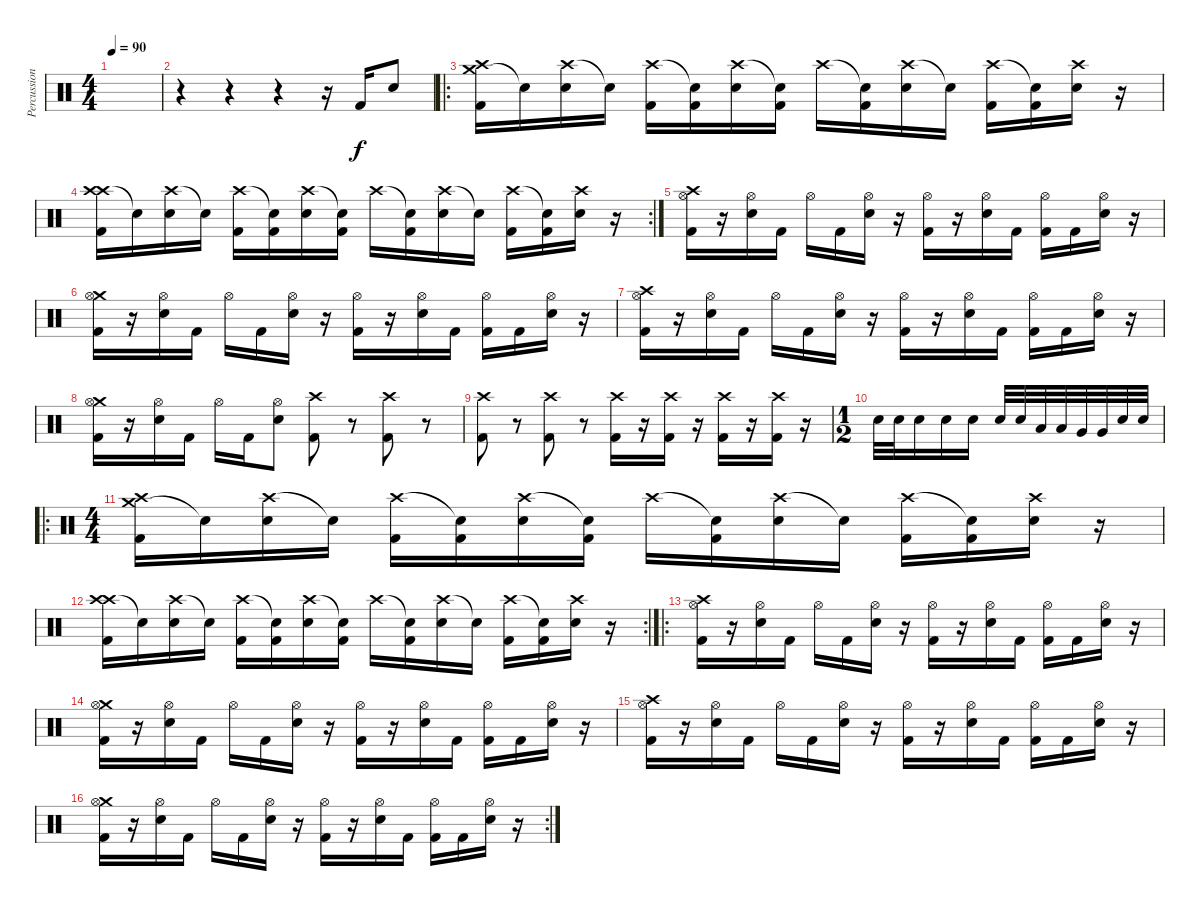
\track ("Percussion" "Percussion") {instrument percussion}
\staff {score}
\articulation defaults
\ts (4 4)
\tempo 90
\clef neutral
\ks c
|
r.4 r.4 r.4 r.16{volume 7} "Kick (hit) 2".16 "Electric Snare (hit)".8 |
\ro
("Crash medium (hit)" "Crash high (hit)" "Kick (hit) 2").16{volume 13} "Snare (hit)"{t}.16 ("Crash high (hit)" "Electric Snare (hit)").16 "Snare (hit)"{t}.16 ("Crash high (hit)" "Kick (hit) 2").16 ("Snare (hit)"{t} "Kick (hit) 2").16 ("Crash high (hit)" "Electric Snare (hit)").16 ("Snare (hit)"{t} "Kick (hit) 2").16 "Crash high (hit)".16 ("Snare (hit)"{t} "Kick (hit) 2").16 ("Crash high (hit)" "Electric Snare (hit)").16 "Snare (hit)"{t}.16 ("Crash high (hit)" "Kick (hit) 2").16 ("Snare (hit)"{t} "Kick (hit) 2").16 ("Crash high (hit)" "Electric Snare (hit)").16 r.16 |
\rc 2
("Crash high (hit)" "Crash high (hit)" "Kick (hit) 2").16{volume 13} "Snare (hit)"{t}.16 ("Crash high (hit)" "Electric Snare (hit)").16 "Snare (hit)"{t}.16 ("Crash high (hit)" "Kick (hit) 2").16 ("Snare (hit)"{t} "Kick (hit) 2").16 ("Crash high (hit)" "Electric Snare (hit)").16 ("Snare (hit)"{t} "Kick (hit) 2").16 "Crash high (hit)".16 ("Snare (hit)"{t} "Kick (hit) 2").16 ("Crash high (hit)" "Electric Snare (hit)").16 "Snare (hit)"{t}.16 ("Crash high (hit)" "Kick (hit) 2").16 ("Snare (hit)"{t} "Kick (hit) 2").16 ("Crash high (hit)" "Electric Snare (hit)").16 r.16 |
("Crash high (hit)" "Hi-Hat (open)" "Kick (hit) 2").16 r.16 ("Hi-Hat (open)" "Electric Snare (hit)").16 "Kick (hit) 2".16 "Hi-Hat (open)".16 "Kick (hit) 2".16 ("Hi-Hat (open)" "Electric Snare (hit)").16 r.16 ("Hi-Hat (open)" "Kick (hit) 2").16 r.16 ("Hi-Hat (open)" "Electric Snare (hit)").16 "Kick (hit) 2".16 ("Hi-Hat (open)" "Kick (hit) 2").16 "Kick (hit) 2".16 ("Hi-Hat (open)" "Electric Snare (hit)").16 r.16 |
("Crash medium (hit)" "Hi-Hat (open)" "Kick (hit) 2").16 r.16 ("Hi-Hat (open)" "Electric Snare (hit)").16 "Kick (hit) 2".16 "Hi-Hat (open)".16 "Kick (hit) 2".16 ("Hi-Hat (open)" "Electric Snare (hit)").16 r.16 ("Hi-Hat (open)" "Kick (hit) 2").16 r.16 ("Hi-Hat (open)" "Electric Snare (hit)").16 "Kick (hit) 2".16 ("Hi-Hat (open)" "Kick (hit) 2").16 "Kick (hit) 2".16 ("Hi-Hat (open)" "Electric Snare (hit)").16 r.16 |
("Crash high (hit)" "Hi-Hat (open)" "Kick (hit) 2").16 r.16 ("Hi-Hat (open)" "Electric Snare (hit)").16 "Kick (hit) 2".16 "Hi-Hat (open)".16 "Kick (hit) 2".16 ("Hi-Hat (open)" "Electric Snare (hit)").16 r.16 ("Hi-Hat (open)" "Kick (hit) 2").16 r.16 ("Hi-Hat (open)" "Electric Snare (hit)").16 "Kick (hit) 2".16 ("Hi-Hat (open)" "Kick (hit) 2").16 "Kick (hit) 2".16 ("Hi-Hat (open)" "Electric Snare (hit)").16 r.16 |
("Crash medium (hit)" "Hi-Hat (open)" "Kick (hit) 2").16 r.16 ("Hi-Hat (open)" "Electric Snare (hit)").16 "Kick (hit) 2".16 "Hi-Hat (open)".16 "Kick (hit) 2".16 ("Hi-Hat (open)" "Electric Snare (hit)").8 ("Crash high (hit)" "Kick (hit) 2").8 r.8 ("Crash high (hit)" "Kick (hit) 2").8 r.8 |
("Crash high (hit)" "Kick (hit) 2").8 r.8 ("Crash high (hit)" "Kick (hit) 2").8 r.8 ("Crash high (hit)" "Kick (hit) 2").16 r.16 ("Crash high (hit)" "Kick (hit) 2").16 r.16 ("Crash high (hit)" "Kick (hit) 2").16 r.16 ("Crash high (hit)" "Kick (hit) 2").16 r.16 |
\ts (1 2)
"Electric Snare (hit)".32 "Electric Snare (hit)".32 "Electric Snare (hit)".16 "Electric Snare (hit)".16 "Electric Snare (hit)".16 "Electric Snare (hit)".32 "Electric Snare (hit)".32 "Low Tom (hit)".32 "Low Tom (hit)".32 "Very Low Tom (hit)".32 "Very Low Tom (hit)".32 "Electric Snare (hit)".32 "Electric Snare (hit)".32 |
\ro
\ts (4 4)
("Crash medium (hit)" "Crash high (hit)" "Kick (hit) 2").16{volume 13} "Snare (hit)"{t}.16 ("Crash high (hit)" "Electric Snare (hit)").16 "Snare (hit)"{t}.16 ("Crash high (hit)" "Kick (hit) 2").16 ("Snare (hit)"{t} "Kick (hit) 2").16 ("Crash high (hit)" "Electric Snare (hit)").16 ("Snare (hit)"{t} "Kick (hit) 2").16 "Crash high (hit)".16 ("Snare (hit)"{t} "Kick (hit) 2").16 ("Crash high (hit)" "Electric Snare (hit)").16 "Snare (hit)"{t}.16 ("Crash high (hit)" "Kick (hit) 2").16 ("Snare (hit)"{t} "Kick (hit) 2").16 ("Crash high (hit)" "Electric Snare (hit)").16 r.16 |
\rc 2
("Crash high (hit)" "Crash high (hit)" "Kick (hit) 2").16{volume 13} "Snare (hit)"{t}.16 ("Crash high (hit)" "Electric Snare (hit)").16 "Snare (hit)"{t}.16 ("Crash high (hit)" "Kick (hit) 2").16 ("Snare (hit)"{t} "Kick (hit) 2").16 ("Crash high (hit)" "Electric Snare (hit)").16 ("Snare (hit)"{t} "Kick (hit) 2").16 "Crash high (hit)".16 ("Snare (hit)"{t} "Kick (hit) 2").16 ("Crash high (hit)" "Electric Snare (hit)").16 "Snare (hit)"{t}.16 ("Crash high (hit)" "Kick (hit) 2").16 ("Snare (hit)"{t} "Kick (hit) 2").16 ("Crash high (hit)" "Electric Snare (hit)").16 r.16 |
\ro
("Crash high (hit)" "Hi-Hat (open)" "Kick (hit) 2").16 r.16 ("Hi-Hat (open)" "Electric Snare (hit)").16 "Kick (hit) 2".16 "Hi-Hat (open)".16 "Kick (hit) 2".16 ("Hi-Hat (open)" "Electric Snare (hit)").16 r.16 ("Hi-Hat (open)" "Kick (hit) 2").16 r.16 ("Hi-Hat (open)" "Electric Snare (hit)").16 "Kick (hit) 2".16 ("Hi-Hat (open)" "Kick (hit) 2").16 "Kick (hit) 2".16 ("Hi-Hat (open)" "Electric Snare (hit)").16 r.16 |
("Crash medium (hit)" "Hi-Hat (open)" "Kick (hit) 2").16 r.16 ("Hi-Hat (open)" "Electric Snare (hit)").16 "Kick (hit) 2".16 "Hi-Hat (open)".16 "Kick (hit) 2".16 ("Hi-Hat (open)" "Electric Snare (hit)").16 r.16 ("Hi-Hat (open)" "Kick (hit) 2").16 r.16 ("Hi-Hat (open)" "Electric Snare (hit)").16 "Kick (hit) 2".16 ("Hi-Hat (open)" "Kick (hit) 2").16 "Kick (hit) 2".16 ("Hi-Hat (open)" "Electric Snare (hit)").16 r.16 |
("Crash high (hit)" "Hi-Hat (open)" "Kick (hit) 2").16 r.16 ("Hi-Hat (open)" "Electric Snare (hit)").16 "Kick (hit) 2".16 "Hi-Hat (open)".16 "Kick (hit) 2".16 ("Hi-Hat (open)" "Electric Snare (hit)").16 r.16 ("Hi-Hat (open)" "Kick (hit) 2").16 r.16 ("Hi-Hat (open)" "Electric Snare (hit)").16 "Kick (hit) 2".16 ("Hi-Hat (open)" "Kick (hit) 2").16 "Kick (hit) 2".16 ("Hi-Hat (open)" "Electric Snare (hit)").16 r.16 |
\rc 2
("Crash medium (hit)" "Hi-Hat (open)" "Kick (hit) 2").16 r.16 ("Hi-Hat (open)" "Electric Snare (hit)").16 "Kick (hit) 2".16 "Hi-Hat (open)".16 "Kick (hit) 2".16 ("Hi-Hat (open)" "Electric Snare (hit)").16 r.16 ("Hi-Hat (open)" "Kick (hit) 2").16 r.16 ("Hi-Hat (open)" "Electric Snare (hit)").16 "Kick (hit) 2".16 ("Hi-Hat (open)" "Kick (hit) 2").16 "Kick (hit) 2".16 ("Hi-Hat (open)" "Electric Snare (hit)").16 r.16
